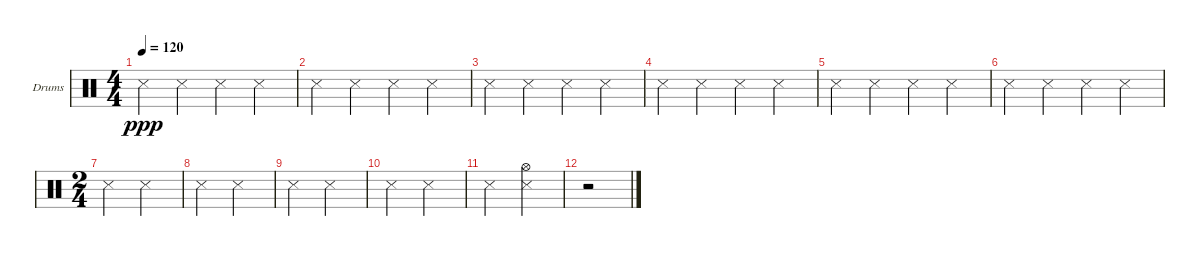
\bracketExtendMode groupsimilarinstruments
\firstSystemTrackNameOrientation horizontal
\otherSystemsTrackNameOrientation horizontal
\track ("Drumkit" "Drums") {instrument percussion}
\staff {score}
\articulation defaults
\ts (4 4)
\tempo 120
\clef neutral
\ks aminor "Snare (side stick) 3".4{dy ppp} "Snare (side stick) 3".4 "Snare (side stick) 3".4 "Snare (side stick) 3".4
|
\ks c "Snare (side stick) 3".4 "Snare (side stick) 3".4 "Snare (side stick) 3".4 "Snare (side stick) 3".4
|
"Snare (side stick) 3".4 "Snare (side stick) 3".4 "Snare (side stick) 3".4 "Snare (side stick) 3".4 |
"Snare (side stick) 3".4 "Snare (side stick) 3".4 "Snare (side stick) 3".4 "Snare (side stick) 3".4 |
"Snare (side stick) 3".4 "Snare (side stick) 3".4 "Snare (side stick) 3".4 "Snare (side stick) 3".4 |
"Snare (side stick) 3".4 "Snare (side stick) 3".4 "Snare (side stick) 3".4 "Snare (side stick) 3".4 |
\ts (2 4)
"Snare (side stick) 3".4 "Snare (side stick) 3".4 |
"Snare (side stick) 3".4 "Snare (side stick) 3".4 |
"Snare (side stick) 3".4 "Snare (side stick) 3".4 |
"Snare (side stick) 3".4 "Snare (side stick) 3".4 |
"Snare (side stick) 3".4 ("Hi-Hat (open)" "Snare (side stick) 3").4 |
r.2
